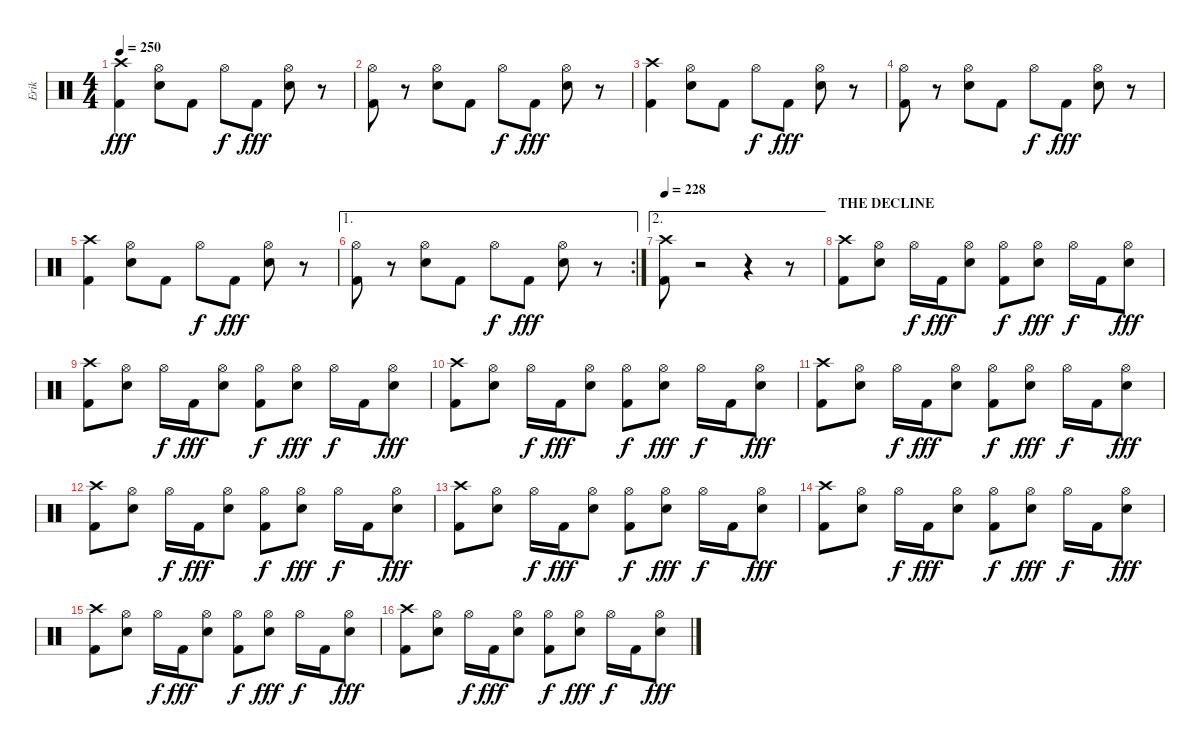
\track ("Erik" "Erik") {instrument percussion}
\staff {score}
\articulation defaults
\ts (4 4)
\tempo 250
\clef neutral
\ks c
("Kick (hit) 2" "Crash high (hit)").4{dy fff} ("Electric Snare (hit)" "Hi-Hat (open)").8 "Kick (hit) 2".8 "Hi-Hat (open)".8{dy f} "Kick (hit) 2".8{dy fff} ("Electric Snare (hit)" "Hi-Hat (open)").8 r.8 |
("Kick (hit) 2" "Hi-Hat (open)").8 r.8 ("Electric Snare (hit)" "Hi-Hat (open)").8 "Kick (hit) 2".8 "Hi-Hat (open)".8{dy f} "Kick (hit) 2".8{dy fff} ("Hi-Hat (open)" "Electric Snare (hit)").8 r.8 |
("Kick (hit) 2" "Crash high (hit)").4 ("Electric Snare (hit)" "Hi-Hat (open)").8 "Kick (hit) 2".8 "Hi-Hat (open)".8{dy f} "Kick (hit) 2".8{dy fff} ("Electric Snare (hit)" "Hi-Hat (open)").8 r.8 |
("Kick (hit) 2" "Hi-Hat (open)").8 r.8 ("Electric Snare (hit)" "Hi-Hat (open)").8 "Kick (hit) 2".8 "Hi-Hat (open)".8{dy f} "Kick (hit) 2".8{dy fff} ("Hi-Hat (open)" "Electric Snare (hit)").8 r.8 |
("Kick (hit) 2" "Crash high (hit)").4 ("Electric Snare (hit)" "Hi-Hat (open)").8 "Kick (hit) 2".8 "Hi-Hat (open)".8{dy f} "Kick (hit) 2".8{dy fff} ("Electric Snare (hit)" "Hi-Hat (open)").8 r.8 |
\ae 1
\rc 2
("Kick (hit) 2" "Hi-Hat (open)").8 r.8 ("Electric Snare (hit)" "Hi-Hat (open)").8 "Kick (hit) 2".8 "Hi-Hat (open)".8{dy f} "Kick (hit) 2".8{dy fff} ("Hi-Hat (open)" "Electric Snare (hit)").8 r.8 |
\ae 2
\tempo 228
("Crash high (hit)" "Kick (hit) 2").8 r.2 r.4 r.8 |
\section ("" "THE DECLINE")
("Crash high (hit)" "Kick (hit) 2").8 ("Hi-Hat (open)" "Electric Snare (hit)").8 "Hi-Hat (open)".16{dy f} "Kick (hit) 2".16{dy fff} ("Hi-Hat (open)" "Electric Snare (hit)").8 ("Hi-Hat (open)" "Kick (hit) 2").8{dy f} ("Hi-Hat (open)" "Electric Snare (hit)").8{dy fff} "Hi-Hat (open)".16{dy f} "Kick (hit) 2".16 ("Hi-Hat (open)" "Electric Snare (hit)").8{dy fff} |
("Crash high (hit)" "Kick (hit) 2").8 ("Hi-Hat (open)" "Electric Snare (hit)").8 "Hi-Hat (open)".16{dy f} "Kick (hit) 2".16{dy fff} ("Hi-Hat (open)" "Electric Snare (hit)").8 ("Hi-Hat (open)" "Kick (hit) 2").8{dy f} ("Hi-Hat (open)" "Electric Snare (hit)").8{dy fff} "Hi-Hat (open)".16{dy f} "Kick (hit) 2".16 ("Hi-Hat (open)" "Electric Snare (hit)").8{dy fff} |
("Crash high (hit)" "Kick (hit) 2").8 ("Hi-Hat (open)" "Electric Snare (hit)").8 "Hi-Hat (open)".16{dy f} "Kick (hit) 2".16{dy fff} ("Hi-Hat (open)" "Electric Snare (hit)").8 ("Hi-Hat (open)" "Kick (hit) 2").8{dy f} ("Hi-Hat (open)" "Electric Snare (hit)").8{dy fff} "Hi-Hat (open)".16{dy f} "Kick (hit) 2".16 ("Hi-Hat (open)" "Electric Snare (hit)").8{dy fff} |
("Crash high (hit)" "Kick (hit) 2").8 ("Hi-Hat (open)" "Electric Snare (hit)").8 "Hi-Hat (open)".16{dy f} "Kick (hit) 2".16{dy fff} ("Hi-Hat (open)" "Electric Snare (hit)").8 ("Hi-Hat (open)" "Kick (hit) 2").8{dy f} ("Hi-Hat (open)" "Electric Snare (hit)").8{dy fff} "Hi-Hat (open)".16{dy f} "Kick (hit) 2".16 ("Hi-Hat (open)" "Electric Snare (hit)").8{dy fff} |
("Crash high (hit)" "Kick (hit) 2").8 ("Hi-Hat (open)" "Electric Snare (hit)").8 "Hi-Hat (open)".16{dy f} "Kick (hit) 2".16{dy fff} ("Hi-Hat (open)" "Electric Snare (hit)").8 ("Hi-Hat (open)" "Kick (hit) 2").8{dy f} ("Hi-Hat (open)" "Electric Snare (hit)").8{dy fff} "Hi-Hat (open)".16{dy f} "Kick (hit) 2".16 ("Hi-Hat (open)" "Electric Snare (hit)").8{dy fff} |
("Crash high (hit)" "Kick (hit) 2").8 ("Hi-Hat (open)" "Electric Snare (hit)").8 "Hi-Hat (open)".16{dy f} "Kick (hit) 2".16{dy fff} ("Hi-Hat (open)" "Electric Snare (hit)").8 ("Hi-Hat (open)" "Kick (hit) 2").8{dy f} ("Hi-Hat (open)" "Electric Snare (hit)").8{dy fff} "Hi-Hat (open)".16{dy f} "Kick (hit) 2".16 ("Hi-Hat (open)" "Electric Snare (hit)").8{dy fff} |
("Crash high (hit)" "Kick (hit) 2").8 ("Hi-Hat (open)" "Electric Snare (hit)").8 "Hi-Hat (open)".16{dy f} "Kick (hit) 2".16{dy fff} ("Hi-Hat (open)" "Electric Snare (hit)").8 ("Hi-Hat (open)" "Kick (hit) 2").8{dy f} ("Hi-Hat (open)" "Electric Snare (hit)").8{dy fff} "Hi-Hat (open)".16{dy f} "Kick (hit) 2".16 ("Hi-Hat (open)" "Electric Snare (hit)").8{dy fff} |
("Crash high (hit)" "Kick (hit) 2").8 ("Hi-Hat (open)" "Electric Snare (hit)").8 "Hi-Hat (open)".16{dy f} "Kick (hit) 2".16{dy fff} ("Hi-Hat (open)" "Electric Snare (hit)").8 ("Hi-Hat (open)" "Kick (hit) 2").8{dy f} ("Hi-Hat (open)" "Electric Snare (hit)").8{dy fff} "Hi-Hat (open)".16{dy f} "Kick (hit) 2".16 ("Hi-Hat (open)" "Electric Snare (hit)").8{dy fff} |
("Crash high (hit)" "Kick (hit) 2").8 ("Hi-Hat (open)" "Electric Snare (hit)").8 "Hi-Hat (open)".16{dy f} "Kick (hit) 2".16{dy fff} ("Hi-Hat (open)" "Electric Snare (hit)").8 ("Hi-Hat (open)" "Kick (hit) 2").8{dy f} ("Hi-Hat (open)" "Electric Snare (hit)").8{dy fff} "Hi-Hat (open)".16{dy f} "Kick (hit) 2".16 ("Hi-Hat (open)" "Electric Snare (hit)").8{dy fff}
